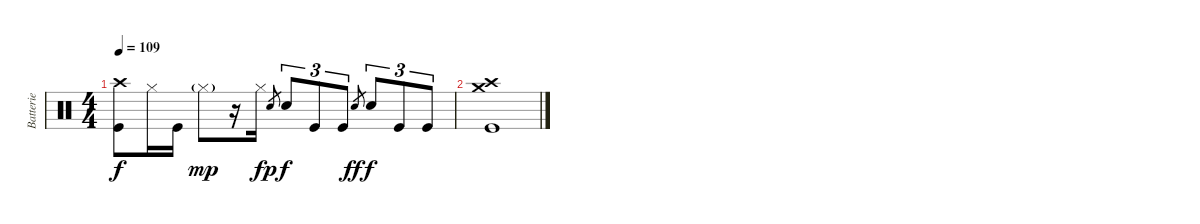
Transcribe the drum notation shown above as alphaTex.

\track ("Batterie" "Batterie") {instrument percussion}
\staff {score}
\articulation defaults
\ts (4 4)
\tempo 109
\clef neutral
\ks c
("Crash high (hit)" "Kick (hit)").8{dy f} "Hi-Hat (closed)".16 "Kick (hit)".16 "Hi-Hat (closed)"{g}.8{dy mp} r.16 "Hi-Hat (closed)".16{dy f} "Electric Snare (hit)".8{gr dy p} "Electric Snare (hit)".8{tu (3 2) dy f} "Kick (hit)".8{tu (3 2)} "Kick (hit)".8{tu (3 2)} "Electric Snare (hit)".8{gr dy ff} "Electric Snare (hit)".8{tu (3 2) dy f} "Kick (hit)".8{tu (3 2)} "Kick (hit)".8{tu (3 2)} |
("Crash high (hit)" "Crash medium (hit)" "Kick (hit)").1
